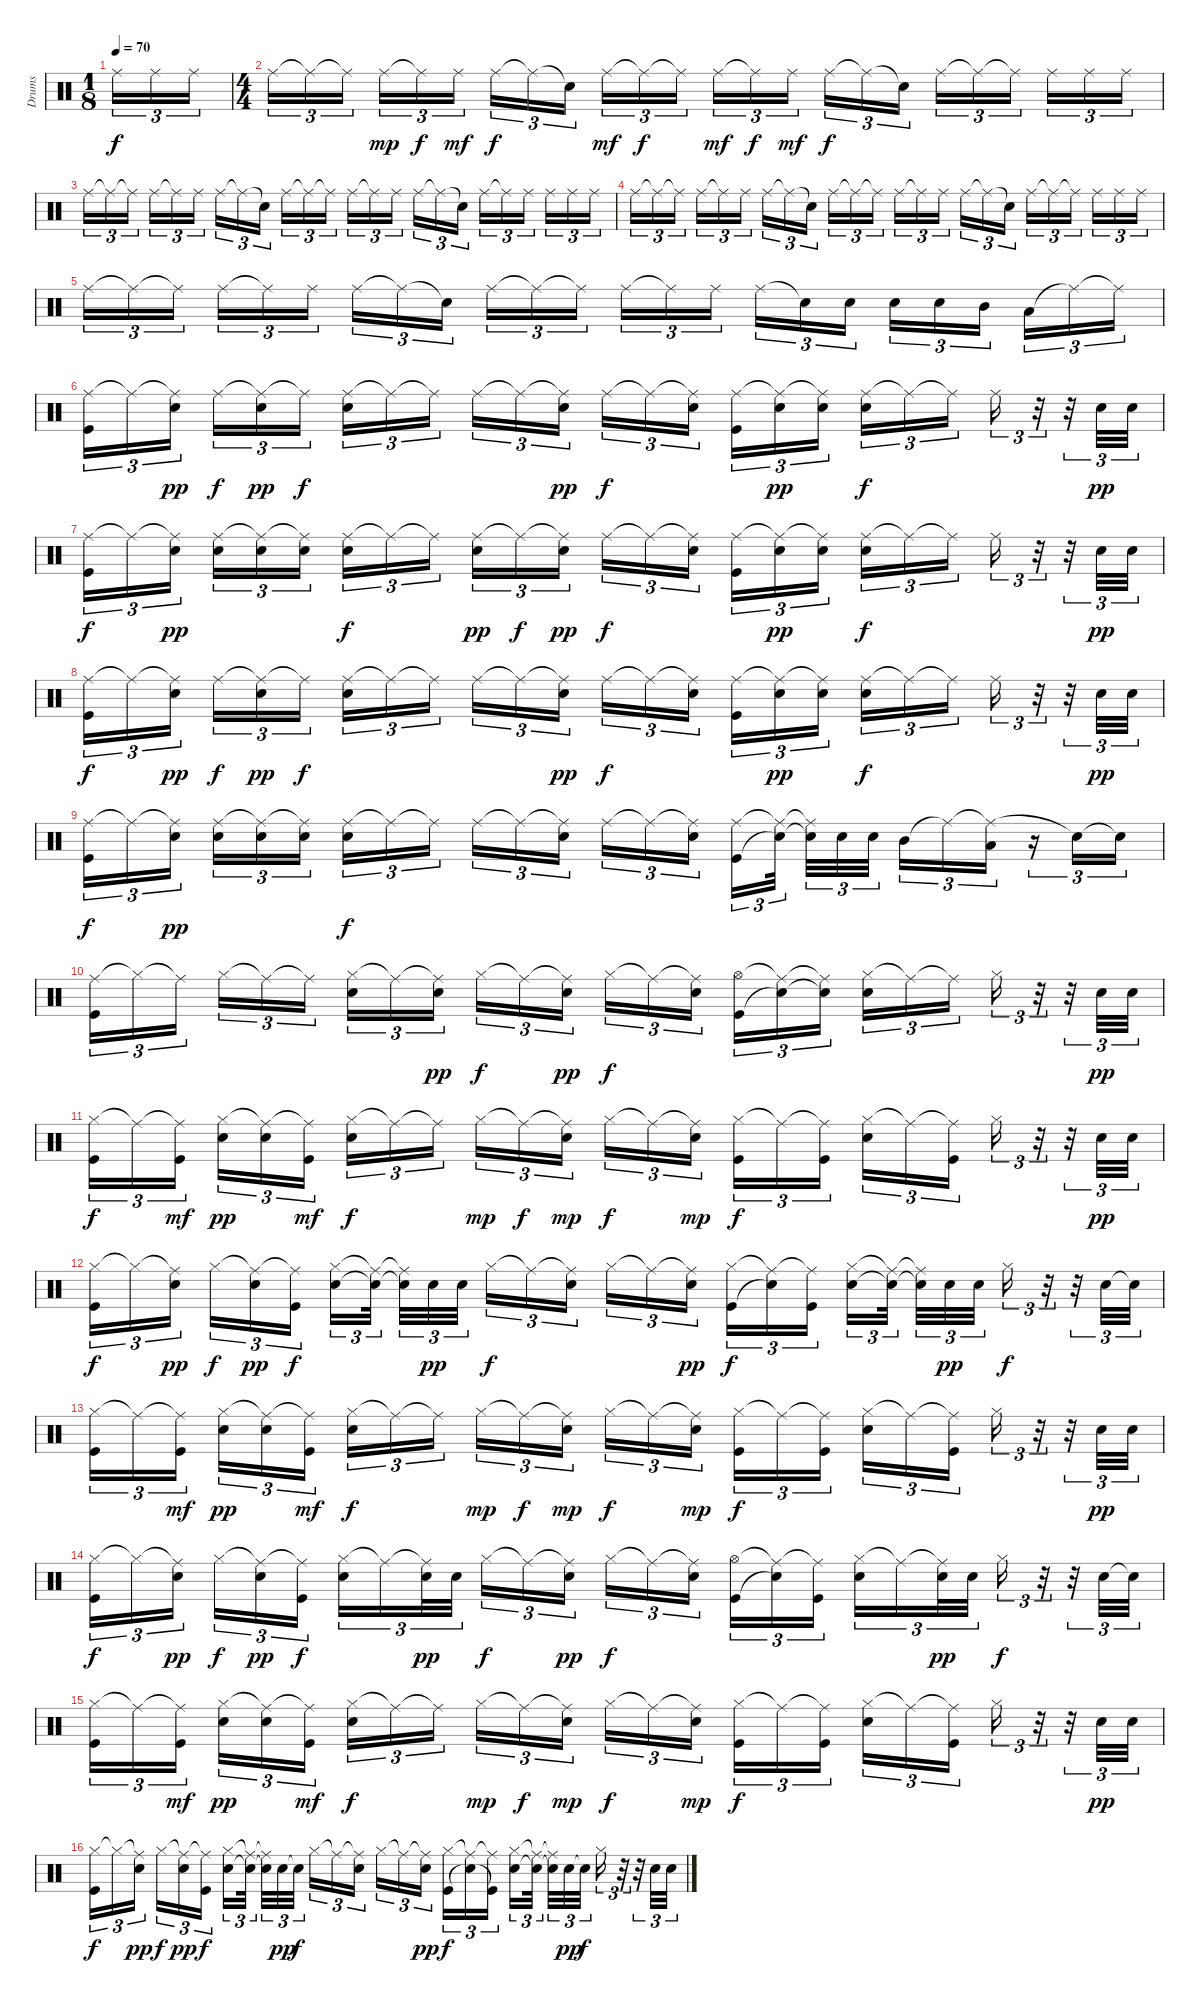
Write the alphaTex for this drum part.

\track ("Drums" "Drums") {instrument percussion}
\staff {score}
\articulation defaults
\ts (1 8)
\tempo 70
\clef neutral
\ks c "Ride (middle)".16{tu (3 2) dy f} "Ride (middle)".16{tu (3 2)} "Ride (middle)".16{tu (3 2)}
|
\ts (4 4)
"Ride (middle)".16{tu (3 2)} "Ride (middle)"{t}.16{tu (3 2)} "Ride (middle)"{t}.16{tu (3 2)} "Ride (middle)".16{tu (3 2) dy mp} "Ride (middle)"{t}.16{tu (3 2) dy f} "Ride (middle)".16{tu (3 2) dy mf} "Ride (middle)".16{tu (3 2) dy f} "Ride (middle)"{t}.16{tu (3 2)} "Snare (hit)"{t}.16{tu (3 2)} "Ride (middle)".16{tu (3 2) dy mf} "Ride (middle)"{t}.16{tu (3 2) dy f} "Ride (middle)"{t}.16{tu (3 2)} "Ride (middle)".16{tu (3 2) dy mf} "Ride (middle)"{t}.16{tu (3 2) dy f} "Ride (middle)".16{tu (3 2) dy mf} "Ride (middle)".16{tu (3 2) dy f} "Ride (middle)"{t}.16{tu (3 2)} "Snare (hit)"{t}.16{tu (3 2)} "Ride (middle)".16{tu (3 2)} "Ride (middle)"{t}.16{tu (3 2)} "Ride (middle)"{t}.16{tu (3 2)} "Ride (middle)".16{tu (3 2)} "Ride (middle)".16{tu (3 2)} "Ride (middle)".16{tu (3 2)} |
"Ride (middle)".16{tu (3 2)} "Ride (middle)"{t}.16{tu (3 2)} "Ride (middle)"{t}.16{tu (3 2)} "Ride (middle)".16{tu (3 2)} "Ride (middle)"{t}.16{tu (3 2)} "Ride (middle)".16{tu (3 2)} "Ride (middle)".16{tu (3 2)} "Ride (middle)"{t}.16{tu (3 2)} "Snare (hit)"{t}.16{tu (3 2)} "Ride (middle)".16{tu (3 2)} "Ride (middle)"{t}.16{tu (3 2)} "Ride (middle)"{t}.16{tu (3 2)} "Ride (middle)".16{tu (3 2)} "Ride (middle)"{t}.16{tu (3 2)} "Ride (middle)".16{tu (3 2)} "Ride (middle)".16{tu (3 2)} "Ride (middle)"{t}.16{tu (3 2)} "Snare (hit)"{t}.16{tu (3 2)} "Ride (middle)".16{tu (3 2)} "Ride (middle)"{t}.16{tu (3 2)} "Ride (middle)".16{tu (3 2)} "Ride (middle)".16{tu (3 2)} "Ride (middle)".16{tu (3 2)} "Ride (middle)".16{tu (3 2)} |
"Ride (middle)".16{tu (3 2)} "Ride (middle)"{t}.16{tu (3 2)} "Ride (middle)"{t}.16{tu (3 2)} "Ride (middle)".16{tu (3 2)} "Ride (middle)"{t}.16{tu (3 2)} "Ride (middle)".16{tu (3 2)} "Ride (middle)".16{tu (3 2)} "Ride (middle)"{t}.16{tu (3 2)} "Snare (hit)"{t}.16{tu (3 2)} "Ride (middle)".16{tu (3 2)} "Ride (middle)"{t}.16{tu (3 2)} "Ride (middle)"{t}.16{tu (3 2)} "Ride (middle)".16{tu (3 2)} "Ride (middle)"{t}.16{tu (3 2)} "Ride (middle)".16{tu (3 2)} "Ride (middle)".16{tu (3 2)} "Ride (middle)"{t}.16{tu (3 2)} "Snare (hit)"{t}.16{tu (3 2)} "Ride (middle)".16{tu (3 2)} "Ride (middle)"{t}.16{tu (3 2)} "Ride (middle)"{t}.16{tu (3 2)} "Ride (middle)".16{tu (3 2)} "Ride (middle)".16{tu (3 2)} "Ride (middle)".16{tu (3 2)} |
"Ride (middle)".16{tu (3 2)} "Ride (middle)"{t}.16{tu (3 2)} "Ride (middle)"{t}.16{tu (3 2)} "Ride (middle)".16{tu (3 2)} "Ride (middle)"{t}.16{tu (3 2)} "Ride (middle)".16{tu (3 2)} "Ride (middle)".16{tu (3 2)} "Ride (middle)"{t}.16{tu (3 2)} "Snare (hit)"{t}.16{tu (3 2)} "Ride (middle)".16{tu (3 2)} "Ride (middle)"{t}.16{tu (3 2)} "Ride (middle)"{t}.16{tu (3 2)} "Ride (middle)".16{tu (3 2)} "Ride (middle)"{t}.16{tu (3 2)} "Ride (middle)".16{tu (3 2)} "Ride (middle)".16{tu (3 2)} "Electric Snare (hit)"{t}.16{tu (3 2)} "Electric Snare (hit)".16{tu (3 2)} "Electric Snare (hit)".16{tu (3 2)} "Electric Snare (hit)".16{tu (3 2)} "Mid Tom (hit)".16{tu (3 2)} "Low Tom (hit)".16{tu (3 2)} "Ride (middle)"{t}.16{tu (3 2)} "Ride (middle)"{t}.16{tu (3 2)} |
("Ride (middle)" "Kick (hit)").16{tu (3 2)} "Ride (middle)"{t}.16{tu (3 2)} ("Ride (middle)"{t} "Electric Snare (hit)").16{tu (3 2) dy pp} "Ride (middle)".16{tu (3 2) dy f} ("Ride (middle)"{t} "Electric Snare (hit)").16{tu (3 2) dy pp} "Ride (middle)"{t}.16{tu (3 2) dy f} ("Ride (middle)" "Electric Snare (hit)").16{tu (3 2)} "Ride (middle)"{t}.16{tu (3 2)} "Ride (middle)"{t}.16{tu (3 2)} "Ride (middle)".16{tu (3 2)} "Ride (middle)"{t}.16{tu (3 2)} ("Ride (middle)"{t} "Electric Snare (hit)").16{tu (3 2) dy pp} "Ride (middle)".16{tu (3 2) dy f} "Ride (middle)"{t}.16{tu (3 2)} ("Ride (middle)"{t} "Electric Snare (hit)").16{tu (3 2)} ("Ride (middle)" "Kick (hit)").16{tu (3 2)} ("Ride (middle)"{t} "Electric Snare (hit)").16{tu (3 2) dy pp} ("Ride (middle)"{t} "Electric Snare (hit)").16{tu (3 2)} ("Ride (middle)" "Electric Snare (hit)").16{tu (3 2) dy f} "Ride (middle)"{t}.16{tu (3 2)} "Ride (middle)"{t}.16{tu (3 2)} "Ride (middle)".16{tu (3 2)} r.32{tu (3 2)} r.32{tu (3 2)} "Electric Snare (hit)".32{tu (3 2) dy pp} "Electric Snare (hit)".32{tu (3 2)} |
("Ride (middle)" "Kick (hit)").16{tu (3 2) dy f} "Ride (middle)"{t}.16{tu (3 2)} ("Ride (middle)"{t} "Electric Snare (hit)").16{tu (3 2) dy pp} ("Ride (middle)" "Electric Snare (hit)").16{tu (3 2)} ("Ride (middle)"{t} "Electric Snare (hit)").16{tu (3 2)} ("Ride (middle)"{t} "Electric Snare (hit)").16{tu (3 2)} ("Ride (middle)" "Electric Snare (hit)").16{tu (3 2) dy f} "Ride (middle)"{t}.16{tu (3 2)} "Ride (middle)"{t}.16{tu (3 2)} ("Ride (middle)" "Electric Snare (hit)").16{tu (3 2) dy pp} "Ride (middle)"{t}.16{tu (3 2) dy f} ("Ride (middle)"{t} "Electric Snare (hit)").16{tu (3 2) dy pp} "Ride (middle)".16{tu (3 2) dy f} "Ride (middle)"{t}.16{tu (3 2)} ("Ride (middle)"{t} "Electric Snare (hit)").16{tu (3 2)} ("Ride (middle)" "Kick (hit)").16{tu (3 2)} ("Ride (middle)"{t} "Electric Snare (hit)").16{tu (3 2) dy pp} ("Ride (middle)"{t} "Electric Snare (hit)").16{tu (3 2)} ("Ride (middle)" "Electric Snare (hit)").16{tu (3 2) dy f} "Ride (middle)"{t}.16{tu (3 2)} "Ride (middle)"{t}.16{tu (3 2)} "Ride (middle)".16{tu (3 2)} r.32{tu (3 2)} r.32{tu (3 2)} "Electric Snare (hit)".32{tu (3 2) dy pp} "Electric Snare (hit)".32{tu (3 2)} |
("Ride (middle)" "Kick (hit)").16{tu (3 2) dy f} "Ride (middle)"{t}.16{tu (3 2)} ("Ride (middle)"{t} "Electric Snare (hit)").16{tu (3 2) dy pp} "Ride (middle)".16{tu (3 2) dy f} ("Ride (middle)"{t} "Electric Snare (hit)").16{tu (3 2) dy pp} "Ride (middle)"{t}.16{tu (3 2) dy f} ("Ride (middle)" "Electric Snare (hit)").16{tu (3 2)} "Ride (middle)"{t}.16{tu (3 2)} "Ride (middle)"{t}.16{tu (3 2)} "Ride (middle)".16{tu (3 2)} "Ride (middle)"{t}.16{tu (3 2)} ("Ride (middle)"{t} "Electric Snare (hit)").16{tu (3 2) dy pp} "Ride (middle)".16{tu (3 2) dy f} "Ride (middle)"{t}.16{tu (3 2)} ("Ride (middle)"{t} "Electric Snare (hit)").16{tu (3 2)} ("Ride (middle)" "Kick (hit)").16{tu (3 2)} ("Ride (middle)"{t} "Electric Snare (hit)").16{tu (3 2) dy pp} ("Ride (middle)"{t} "Electric Snare (hit)").16{tu (3 2)} ("Ride (middle)" "Electric Snare (hit)").16{tu (3 2) dy f} "Ride (middle)"{t}.16{tu (3 2)} "Ride (middle)"{t}.16{tu (3 2)} "Ride (middle)".16{tu (3 2)} r.32{tu (3 2)} r.32{tu (3 2)} "Electric Snare (hit)".32{tu (3 2) dy pp} "Electric Snare (hit)".32{tu (3 2)} |
("Ride (middle)" "Kick (hit)").16{tu (3 2) dy f} "Ride (middle)"{t}.16{tu (3 2)} ("Ride (middle)"{t} "Electric Snare (hit)").16{tu (3 2) dy pp} ("Ride (middle)" "Electric Snare (hit)").16{tu (3 2)} ("Ride (middle)"{t} "Electric Snare (hit)").16{tu (3 2)} ("Ride (middle)"{t} "Electric Snare (hit)").16{tu (3 2)} ("Ride (middle)" "Electric Snare (hit)").16{tu (3 2) dy f} "Ride (middle)"{t}.16{tu (3 2)} "Ride (middle)"{t}.16{tu (3 2)} "Ride (middle)".16{tu (3 2)} "Ride (middle)"{t}.16{tu (3 2)} ("Ride (middle)"{t} "Electric Snare (hit)").16{tu (3 2)} "Ride (middle)".16{tu (3 2)} "Ride (middle)"{t}.16{tu (3 2)} ("Ride (middle)"{t} "Electric Snare (hit)").16{tu (3 2)} ("Ride (middle)" "Kick (hit)").16{tu (3 2)} ("Ride (middle)"{t} "Electric Snare (hit)"{t}).32{tu (3 2)} ("Ride (middle)"{t} "Electric Snare (hit)"{t}).32{tu (3 2)} "Electric Snare (hit)".32{tu (3 2)} "Electric Snare (hit)".32{tu (3 2)} "Mid Tom (hit)".16{tu (3 2)} "Ride (middle)"{t}.16{tu (3 2)} ("Ride (middle)"{t} "Low Tom (hit)").16{tu (3 2)} r.16{tu (3 2)} "Snare (hit)"{t}.16{tu (3 2)} "Snare (hit)"{t}.16{tu (3 2)} |
("Ride (middle)" "Kick (hit)").16{tu (3 2)} "Hi-Hat (closed)"{t}.16{tu (3 2)} "Ride (middle)"{t}.16{tu (3 2)} "Hi-Hat (closed)".16{tu (3 2)} "Ride (middle)"{t}.16{tu (3 2)} "Ride (middle)"{t}.16{tu (3 2)} ("Hi-Hat (closed)" "Electric Snare (hit)").16{tu (3 2)} "Ride (middle)"{t}.16{tu (3 2)} ("Ride (middle)"{t} "Electric Snare (hit)").16{tu (3 2) dy pp} "Hi-Hat (closed)".16{tu (3 2) dy f} "Ride (middle)"{t}.16{tu (3 2)} ("Ride (middle)"{t} "Electric Snare (hit)").16{tu (3 2) dy pp} "Hi-Hat (closed)".16{tu (3 2) dy f} "Ride (middle)"{t}.16{tu (3 2)} ("Ride (middle)"{t} "Electric Snare (hit)").16{tu (3 2)} ("Hi-Hat (open)" "Kick (hit)").16{tu (3 2)} ("Ride (middle)"{t} "Electric Snare (hit)"{t}).16{tu (3 2)} ("Ride (middle)"{t} "Electric Snare (hit)"{t}).16{tu (3 2)} ("Hi-Hat (closed)" "Electric Snare (hit)").16{tu (3 2)} "Ride (middle)"{t}.16{tu (3 2)} "Ride (middle)"{t}.16{tu (3 2)} "Hi-Hat (closed)".16{tu (3 2)} r.32{tu (3 2)} r.32{tu (3 2)} "Electric Snare (hit)".32{tu (3 2) dy pp} "Electric Snare (hit)".32{tu (3 2)} |
("Hi-Hat (closed)" "Kick (hit)").16{tu (3 2) dy f} "Ride (middle)"{t}.16{tu (3 2)} ("Ride (middle)"{t} "Kick (hit)").16{tu (3 2) dy mf} ("Hi-Hat (closed)" "Electric Snare (hit)").16{tu (3 2) dy pp} ("Ride (middle)"{t} "Electric Snare (hit)").16{tu (3 2)} ("Ride (middle)"{t} "Kick (hit)").16{tu (3 2) dy mf} ("Hi-Hat (closed)" "Electric Snare (hit)").16{tu (3 2) dy f} "Ride (middle)"{t}.16{tu (3 2)} "Ride (middle)"{t}.16{tu (3 2)} "Hi-Hat (closed)".16{tu (3 2) dy mp} "Ride (middle)"{t}.16{tu (3 2) dy f} ("Ride (middle)"{t} "Electric Snare (hit)").16{tu (3 2) dy mp} "Hi-Hat (closed)".16{tu (3 2) dy f} "Ride (middle)"{t}.16{tu (3 2)} ("Ride (middle)"{t} "Electric Snare (hit)").16{tu (3 2) dy mp} ("Hi-Hat (closed)" "Kick (hit)").16{tu (3 2) dy f} "Ride (middle)"{t}.16{tu (3 2)} ("Ride (middle)"{t} "Kick (hit)").16{tu (3 2)} ("Hi-Hat (closed)" "Electric Snare (hit)").16{tu (3 2)} "Ride (middle)"{t}.16{tu (3 2)} ("Ride (middle)"{t} "Kick (hit)").16{tu (3 2)} "Hi-Hat (closed)".16{tu (3 2)} r.32{tu (3 2)} r.32{tu (3 2)} "Electric Snare (hit)".32{tu (3 2) dy pp} "Electric Snare (hit)".32{tu (3 2)} |
("Hi-Hat (closed)" "Kick (hit)").16{tu (3 2) dy f} "Hi-Hat (closed)"{t}.16{tu (3 2)} ("Ride (middle)"{t} "Electric Snare (hit)").16{tu (3 2) dy pp} "Hi-Hat (closed)".16{tu (3 2) dy f} ("Ride (middle)"{t} "Electric Snare (hit)").16{tu (3 2) dy pp} ("Ride (middle)"{t} "Kick (hit)").16{tu (3 2) dy f} ("Hi-Hat (closed)" "Electric Snare (hit)").16{tu (3 2)} ("Ride (middle)"{t} "Electric Snare (hit)"{t}).32{tu (3 2)} ("Ride (middle)"{t} "Electric Snare (hit)"{t}).32{tu (3 2)} "Electric Snare (hit)".32{tu (3 2) dy pp} "Electric Snare (hit)".32{tu (3 2)} "Hi-Hat (closed)".16{tu (3 2) dy f} "Ride (middle)"{t}.16{tu (3 2)} ("Ride (middle)"{t} "Electric Snare (hit)").16{tu (3 2)} "Hi-Hat (closed)".16{tu (3 2)} "Ride (middle)"{t}.16{tu (3 2)} ("Ride (middle)"{t} "Electric Snare (hit)").16{tu (3 2) dy pp} ("Hi-Hat (closed)" "Kick (hit)").16{tu (3 2) dy f} ("Ride (middle)"{t} "Electric Snare (hit)"{t}).16{tu (3 2)} ("Ride (middle)"{t} "Kick (hit)").16{tu (3 2)} ("Hi-Hat (closed)" "Electric Snare (hit)").16{tu (3 2)} ("Ride (middle)"{t} "Electric Snare (hit)"{t}).32{tu (3 2)} ("Ride (middle)"{t} "Electric Snare (hit)"{t}).32{tu (3 2)} "Electric Snare (hit)".32{tu (3 2) dy pp} "Electric Snare (hit)".32{tu (3 2)} "Hi-Hat (closed)".16{tu (3 2) dy f} r.32{tu (3 2)} r.32{tu (3 2)} "Electric Snare (hit)".32{tu (3 2)} "Electric Snare (hit)"{t}.32{tu (3 2)} |
("Hi-Hat (closed)" "Kick (hit)").16{tu (3 2)} "Ride (middle)"{t}.16{tu (3 2)} ("Ride (middle)"{t} "Kick (hit)").16{tu (3 2) dy mf} ("Hi-Hat (closed)" "Electric Snare (hit)").16{tu (3 2) dy pp} ("Ride (middle)"{t} "Electric Snare (hit)").16{tu (3 2)} ("Ride (middle)"{t} "Kick (hit)").16{tu (3 2) dy mf} ("Hi-Hat (closed)" "Electric Snare (hit)").16{tu (3 2) dy f} "Ride (middle)"{t}.16{tu (3 2)} "Ride (middle)"{t}.16{tu (3 2)} "Hi-Hat (closed)".16{tu (3 2) dy mp} "Ride (middle)"{t}.16{tu (3 2) dy f} ("Ride (middle)"{t} "Electric Snare (hit)").16{tu (3 2) dy mp} "Hi-Hat (closed)".16{tu (3 2) dy f} "Ride (middle)"{t}.16{tu (3 2)} ("Ride (middle)"{t} "Electric Snare (hit)").16{tu (3 2) dy mp} ("Hi-Hat (closed)" "Kick (hit)").16{tu (3 2) dy f} "Ride (middle)"{t}.16{tu (3 2)} ("Ride (middle)"{t} "Kick (hit)").16{tu (3 2)} ("Hi-Hat (closed)" "Electric Snare (hit)").16{tu (3 2)} "Ride (middle)"{t}.16{tu (3 2)} ("Ride (middle)"{t} "Kick (hit)").16{tu (3 2)} "Hi-Hat (closed)".16{tu (3 2)} r.32{tu (3 2)} r.32{tu (3 2)} "Electric Snare (hit)".32{tu (3 2) dy pp} "Electric Snare (hit)".32{tu (3 2)} |
("Hi-Hat (closed)" "Kick (hit)").16{tu (3 2) dy f} "Hi-Hat (closed)"{t}.16{tu (3 2)} ("Ride (middle)"{t} "Electric Snare (hit)").16{tu (3 2) dy pp} "Hi-Hat (closed)".16{tu (3 2) dy f} ("Ride (middle)"{t} "Electric Snare (hit)").16{tu (3 2) dy pp} ("Ride (middle)"{t} "Kick (hit)").16{tu (3 2) dy f} ("Hi-Hat (closed)" "Electric Snare (hit)").16{tu (3 2)} "Ride (middle)"{t}.16{tu (3 2)} ("Ride (middle)"{t} "Electric Snare (hit)").32{tu (3 2) dy pp} "Electric Snare (hit)".32{tu (3 2)} "Hi-Hat (closed)".16{tu (3 2) dy f} "Ride (middle)"{t}.16{tu (3 2)} ("Ride (middle)"{t} "Electric Snare (hit)").16{tu (3 2) dy pp} "Hi-Hat (closed)".16{tu (3 2) dy f} "Ride (middle)"{t}.16{tu (3 2)} ("Ride (middle)"{t} "Electric Snare (hit)").16{tu (3 2)} ("Hi-Hat (open)" "Kick (hit)").16{tu (3 2)} ("Ride (middle)"{t} "Electric Snare (hit)"{t}).16{tu (3 2)} ("Ride (middle)"{t} "Kick (hit)").16{tu (3 2)} ("Hi-Hat (closed)" "Electric Snare (hit)").16{tu (3 2)} "Ride (middle)"{t}.16{tu (3 2)} ("Ride (middle)"{t} "Electric Snare (hit)").32{tu (3 2) dy pp} "Electric Snare (hit)".32{tu (3 2)} "Hi-Hat (closed)".16{tu (3 2) dy f} r.32{tu (3 2)} r.32{tu (3 2)} "Electric Snare (hit)".32{tu (3 2)} "Electric Snare (hit)"{t}.32{tu (3 2)} |
("Hi-Hat (closed)" "Kick (hit)").16{tu (3 2)} "Ride (middle)"{t}.16{tu (3 2)} ("Ride (middle)"{t} "Kick (hit)").16{tu (3 2) dy mf} ("Hi-Hat (closed)" "Electric Snare (hit)").16{tu (3 2) dy pp} ("Ride (middle)"{t} "Electric Snare (hit)").16{tu (3 2)} ("Ride (middle)"{t} "Kick (hit)").16{tu (3 2) dy mf} ("Hi-Hat (closed)" "Electric Snare (hit)").16{tu (3 2) dy f} "Ride (middle)"{t}.16{tu (3 2)} "Ride (middle)"{t}.16{tu (3 2)} "Hi-Hat (closed)".16{tu (3 2) dy mp} "Ride (middle)"{t}.16{tu (3 2) dy f} ("Ride (middle)"{t} "Electric Snare (hit)").16{tu (3 2) dy mp} "Hi-Hat (closed)".16{tu (3 2) dy f} "Ride (middle)"{t}.16{tu (3 2)} ("Ride (middle)"{t} "Electric Snare (hit)").16{tu (3 2) dy mp} ("Hi-Hat (closed)" "Kick (hit)").16{tu (3 2) dy f} "Ride (middle)"{t}.16{tu (3 2)} ("Ride (middle)"{t} "Kick (hit)").16{tu (3 2)} ("Hi-Hat (closed)" "Electric Snare (hit)").16{tu (3 2)} "Ride (middle)"{t}.16{tu (3 2)} ("Ride (middle)"{t} "Kick (hit)").16{tu (3 2)} "Hi-Hat (closed)".16{tu (3 2)} r.32{tu (3 2)} r.32{tu (3 2)} "Electric Snare (hit)".32{tu (3 2) dy pp} "Electric Snare (hit)".32{tu (3 2)} |
("Hi-Hat (closed)" "Kick (hit)").16{tu (3 2) dy f} "Hi-Hat (closed)"{t}.16{tu (3 2)} ("Ride (middle)"{t} "Electric Snare (hit)").16{tu (3 2) dy pp} "Hi-Hat (closed)".16{tu (3 2) dy f} ("Ride (middle)"{t} "Electric Snare (hit)").16{tu (3 2) dy pp} ("Ride (middle)"{t} "Kick (hit)").16{tu (3 2) dy f} ("Hi-Hat (closed)" "Electric Snare (hit)").16{tu (3 2)} ("Ride (middle)"{t} "Electric Snare (hit)"{t}).32{tu (3 2)} ("Ride (middle)"{t} "Electric Snare (hit)"{t}).32{tu (3 2)} "Electric Snare (hit)".32{tu (3 2) dy pp} "Electric Snare (hit)"{t}.32{tu (3 2) dy f} "Hi-Hat (closed)".16{tu (3 2)} "Ride (middle)"{t}.16{tu (3 2)} ("Ride (middle)"{t} "Electric Snare (hit)").16{tu (3 2)} "Hi-Hat (closed)".16{tu (3 2)} "Ride (middle)"{t}.16{tu (3 2)} ("Ride (middle)"{t} "Electric Snare (hit)").16{tu (3 2) dy pp} ("Hi-Hat (closed)" "Kick (hit)").16{tu (3 2) dy f} ("Ride (middle)"{t} "Electric Snare (hit)"{t}).16{tu (3 2)} ("Ride (middle)"{t} "Kick (hit)"{t}).16{tu (3 2)} ("Hi-Hat (closed)" "Electric Snare (hit)").16{tu (3 2)} ("Ride (middle)"{t} "Electric Snare (hit)"{t}).32{tu (3 2)} ("Ride (middle)"{t} "Electric Snare (hit)"{t}).32{tu (3 2)} "Electric Snare (hit)".32{tu (3 2) dy pp} "Electric Snare (hit)"{t}.32{tu (3 2) dy f} "Hi-Hat (closed)".16{tu (3 2)} r.32{tu (3 2)} r.32{tu (3 2)} "Electric Snare (hit)".32{tu (3 2)} "Electric Snare (hit)".32{tu (3 2)}
